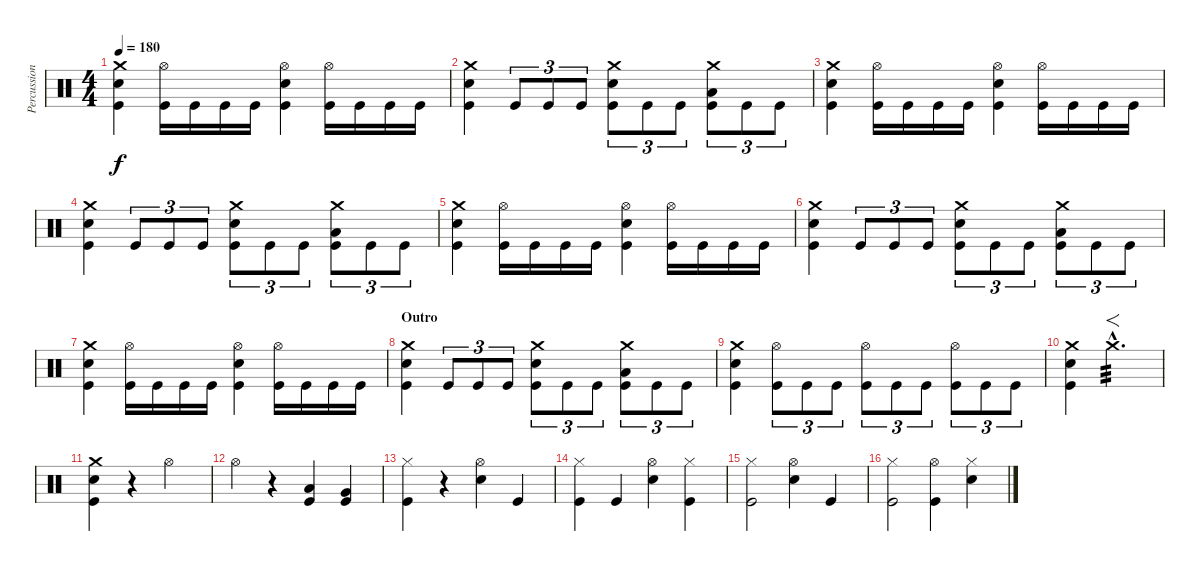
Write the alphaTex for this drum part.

\track ("Percussion" "Percussion") {instrument percussion}
\staff {score}
\articulation defaults
\ts (4 4)
\tempo 180
\clef neutral
\ks c
("Crash medium (hit)" "Snare (hit) 2" "Kick (hit)").4{dy f} ("Hi-Hat (open)" "Kick (hit)").16 "Kick (hit)".16 "Kick (hit)".16 "Kick (hit)".16 ("Hi-Hat (open)" "Snare (hit) 2" "Kick (hit)").4 ("Hi-Hat (open)" "Kick (hit)").16 "Kick (hit)".16 "Kick (hit)".16 "Kick (hit)".16 |
("Crash medium (hit)" "Electric Snare (hit)" "Kick (hit)").4 "Kick (hit)".8{tu (3 2)} "Kick (hit)".8{tu (3 2)} "Kick (hit)".8{tu (3 2)} ("Crash medium (hit)" "Electric Snare (hit)" "Kick (hit)").8{tu (3 2)} "Kick (hit)".8{tu (3 2)} "Kick (hit)".8{tu (3 2)} ("Crash medium (hit)" "Low Tom (hit)" "Kick (hit)").8{tu (3 2)} "Kick (hit)".8{tu (3 2)} "Kick (hit)".8{tu (3 2)} |
("Crash medium (hit)" "Snare (hit) 2" "Kick (hit)").4 ("Hi-Hat (open)" "Kick (hit)").16 "Kick (hit)".16 "Kick (hit)".16 "Kick (hit)".16 ("Hi-Hat (open)" "Snare (hit) 2" "Kick (hit)").4 ("Hi-Hat (open)" "Kick (hit)").16 "Kick (hit)".16 "Kick (hit)".16 "Kick (hit)".16 |
("Crash medium (hit)" "Electric Snare (hit)" "Kick (hit)").4 "Kick (hit)".8{tu (3 2)} "Kick (hit)".8{tu (3 2)} "Kick (hit)".8{tu (3 2)} ("Crash medium (hit)" "Electric Snare (hit)" "Kick (hit)").8{tu (3 2)} "Kick (hit)".8{tu (3 2)} "Kick (hit)".8{tu (3 2)} ("Crash medium (hit)" "Low Tom (hit)" "Kick (hit)").8{tu (3 2)} "Kick (hit)".8{tu (3 2)} "Kick (hit)".8{tu (3 2)} |
("Crash medium (hit)" "Snare (hit) 2" "Kick (hit)").4 ("Hi-Hat (open)" "Kick (hit)").16 "Kick (hit)".16 "Kick (hit)".16 "Kick (hit)".16 ("Hi-Hat (open)" "Snare (hit) 2" "Kick (hit)").4 ("Hi-Hat (open)" "Kick (hit)").16 "Kick (hit)".16 "Kick (hit)".16 "Kick (hit)".16 |
("Crash medium (hit)" "Electric Snare (hit)" "Kick (hit)").4 "Kick (hit)".8{tu (3 2)} "Kick (hit)".8{tu (3 2)} "Kick (hit)".8{tu (3 2)} ("Crash medium (hit)" "Electric Snare (hit)" "Kick (hit)").8{tu (3 2)} "Kick (hit)".8{tu (3 2)} "Kick (hit)".8{tu (3 2)} ("Crash medium (hit)" "Low Tom (hit)" "Kick (hit)").8{tu (3 2)} "Kick (hit)".8{tu (3 2)} "Kick (hit)".8{tu (3 2)} |
("Crash medium (hit)" "Snare (hit) 2" "Kick (hit)").4 ("Hi-Hat (open)" "Kick (hit)").16 "Kick (hit)".16 "Kick (hit)".16 "Kick (hit)".16 ("Hi-Hat (open)" "Snare (hit) 2" "Kick (hit)").4 ("Hi-Hat (open)" "Kick (hit)").16 "Kick (hit)".16 "Kick (hit)".16 "Kick (hit)".16 |
\section ("" "Outro")
("Crash medium (hit)" "Electric Snare (hit)" "Kick (hit)").4 "Kick (hit)".8{tu (3 2)} "Kick (hit)".8{tu (3 2)} "Kick (hit)".8{tu (3 2)} ("Crash medium (hit)" "Electric Snare (hit)" "Kick (hit)").8{tu (3 2)} "Kick (hit)".8{tu (3 2)} "Kick (hit)".8{tu (3 2)} ("Crash medium (hit)" "Low Tom (hit)" "Kick (hit)").8{tu (3 2)} "Kick (hit)".8{tu (3 2)} "Kick (hit)".8{tu (3 2)} |
("Crash medium (hit)" "Electric Snare (hit)" "Kick (hit)").4 ("Hi-Hat (open)" "Kick (hit)").8{tu (3 2)} "Kick (hit)".8{tu (3 2)} "Kick (hit)".8{tu (3 2)} ("Hi-Hat (open)" "Kick (hit)").8{tu (3 2)} "Kick (hit)".8{tu (3 2)} "Kick (hit)".8{tu (3 2)} ("Hi-Hat (open)" "Kick (hit)").8{tu (3 2)} "Kick (hit)".8{tu (3 2)} "Kick (hit)".8{tu (3 2)} |
("Crash medium (hit)" "Electric Snare (hit)" "Kick (hit)").4 "Crash medium (hit)"{hac}.2{f d tp 3} |
("Crash medium (hit)" "Electric Snare (hit)" "Kick (hit)").4 r.4 "Hi-Hat (open)".2 |
"Hi-Hat (open)".4 r.4 ("Low Tom (hit)" "Kick (hit)").4 ("Very Low Tom (hit)" "Kick (hit)").4 |
("Hi-Hat (closed)" "Kick (hit)").4 r.4 ("Hi-Hat (open)" "Snare (hit) 2").4 "Kick (hit)".4 |
("Hi-Hat (closed)" "Kick (hit)").4 "Kick (hit)".4 ("Hi-Hat (open)" "Snare (hit) 2").4 ("Hi-Hat (closed)" "Kick (hit)").4 |
("Hi-Hat (closed)" "Kick (hit)").2 ("Hi-Hat (open)" "Snare (hit) 2").4 "Kick (hit)".4 |
("Hi-Hat (closed)" "Kick (hit)").2 ("Hi-Hat (open)" "Kick (hit)").4 ("Hi-Hat (closed)" "Snare (hit) 2").4
